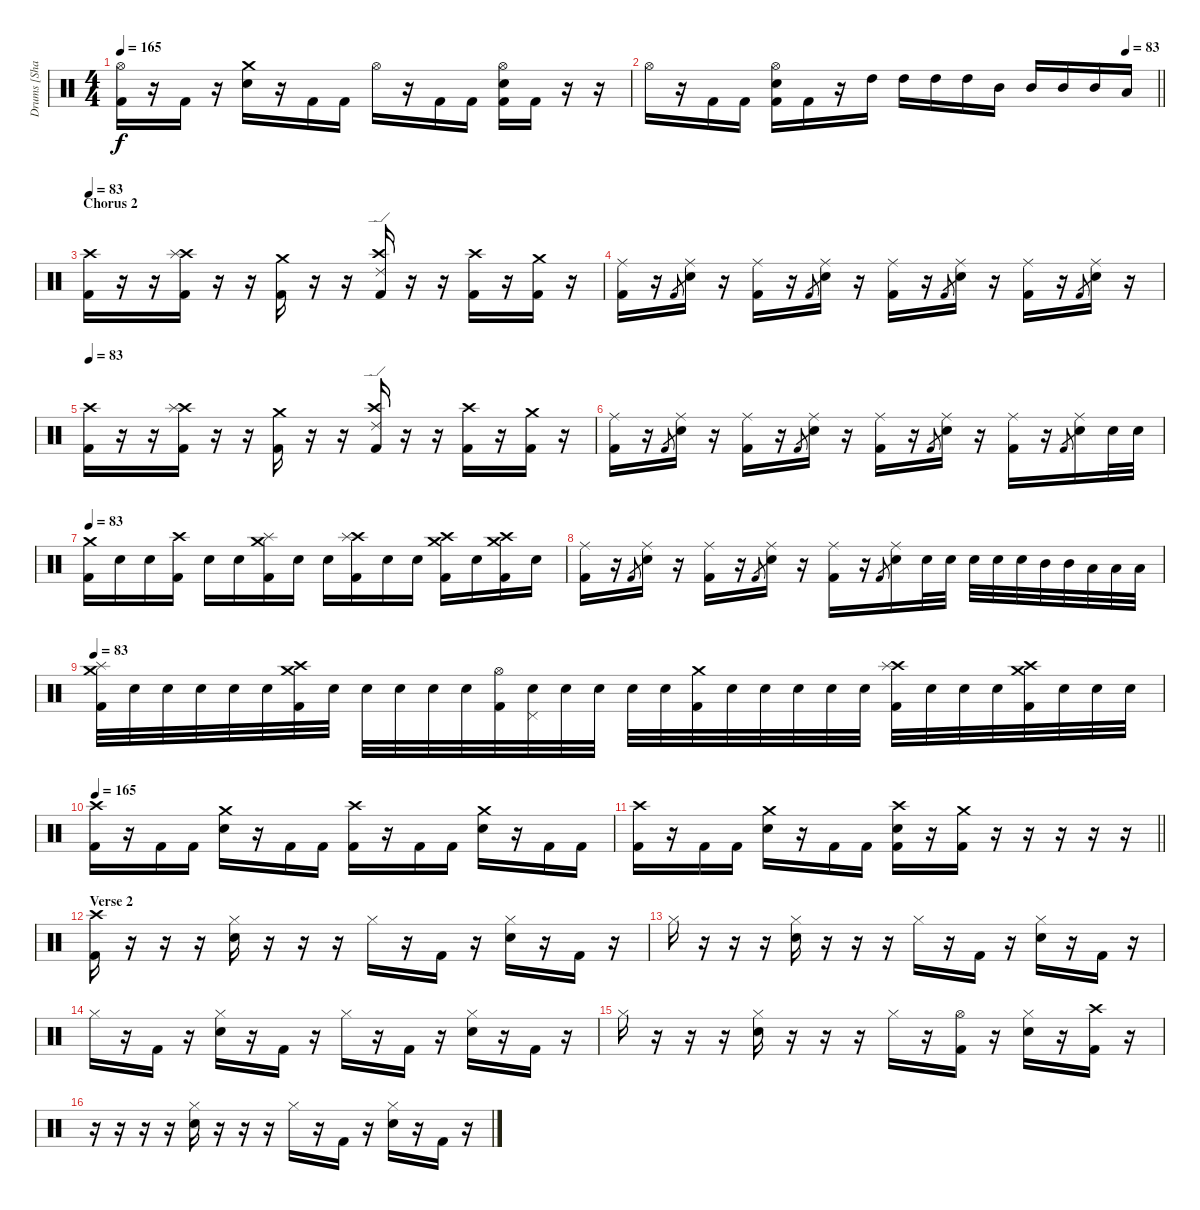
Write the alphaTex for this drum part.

\track ("Drums [Shawn Drover]" "Drums [Sha") {instrument percussion}
\staff {score}
\articulation defaults
\ts (4 4)
\tempo 165
\clef neutral
\ks c
("Hi-Hat (open)" "Kick (hit) 2").16{dy f} r.16 "Kick (hit) 2".16 r.16 ("Crash medium (hit)" "Electric Snare (hit)").16 r.16 "Kick (hit) 2".16 "Kick (hit) 2".16 "Hi-Hat (open)".16 r.16 "Kick (hit) 2".16 "Kick (hit) 2".16 ("Hi-Hat (open)" "Electric Snare (hit)" "Kick (hit) 2").16 "Kick (hit) 2".16 r.16 r.16 |
\tempo (83 0.9375)
\barLineRight lightlight "Hi-Hat (open)".16
r.16 "Kick (hit) 2".16 "Kick (hit) 2".16 ("Hi-Hat (open)" "Electric Snare (hit)" "Kick (hit) 2").16 "Kick (hit) 2".16 r.16 "High Tom (hit)".16 "High Tom (hit)".16 "High Tom (hit)".16 "High Tom (hit)".16 "Mid Tom (hit)".16 "Mid Tom (hit)".16 "Mid Tom (hit)".16 "Mid Tom (hit)".16 "Low Tom (hit)".16 |
\section ("" "Chorus 2")
\tempo 83
("Crash high (hit)" "Kick (hit) 2").16 r.16 r.16 ("Crash high (hit)" "Splash (hit)" "Kick (hit) 2").16 r.16 r.16 ("Crash medium (hit)" "Kick (hit) 2").16 r.16 r.16 ("Crash high (hit)" "Ride (edge) 2" "Kick (hit) 2").16 r.16 r.16 ("Crash high (hit)" "Kick (hit) 2").16 r.16 ("Crash medium (hit)" "Kick (hit) 2").16 r.16 |
("Ride (middle)" "Kick (hit) 2").16 r.16 "Kick (hit) 2".8{gr} ("Ride (middle)" "Electric Snare (hit)").16 r.16 ("Ride (middle)" "Kick (hit) 2").16 r.16 "Kick (hit) 2".8{gr} ("Ride (middle)" "Electric Snare (hit)").16 r.16 ("Ride (middle)" "Kick (hit) 2").16 r.16 "Kick (hit) 2".8{gr} ("Ride (middle)" "Electric Snare (hit)").16 r.16 ("Ride (middle)" "Kick (hit) 2").16 r.16 "Kick (hit) 2".8{gr} ("Ride (middle)" "Electric Snare (hit)").16 r.16 |
\tempo 83
("Crash high (hit)" "Kick (hit) 2").16 r.16 r.16 ("Crash high (hit)" "Splash (hit)" "Kick (hit) 2").16 r.16 r.16 ("Crash medium (hit)" "Kick (hit) 2").16 r.16 r.16 ("Crash high (hit)" "Ride (edge) 2" "Kick (hit) 2").16 r.16 r.16 ("Crash high (hit)" "Kick (hit) 2").16 r.16 ("Crash medium (hit)" "Kick (hit) 2").16 r.16 |
("Ride (middle)" "Kick (hit) 2").16 r.16 "Kick (hit) 2".8{gr} ("Ride (middle)" "Electric Snare (hit)").16 r.16 ("Ride (middle)" "Kick (hit) 2").16 r.16 "Kick (hit) 2".8{gr} ("Ride (middle)" "Electric Snare (hit)").16 r.16 ("Ride (middle)" "Kick (hit) 2").16 r.16 "Kick (hit) 2".8{gr} ("Ride (middle)" "Electric Snare (hit)").16 r.16 ("Ride (middle)" "Kick (hit) 2").16 r.16 "Kick (hit) 2".8{gr} ("Ride (middle)" "Electric Snare (hit)").16 "Electric Snare (hit)".32 "Electric Snare (hit)".32 |
\tempo 83
("Crash medium (hit)" "Kick (hit) 2").16 "Electric Snare (hit)".16 "Electric Snare (hit)".16 ("Crash high (hit)" "Kick (hit) 2").16 "Electric Snare (hit)".16 "Electric Snare (hit)".16 ("Crash medium (hit)" "Splash (hit)" "Kick (hit) 2").16 "Electric Snare (hit)".16 "Electric Snare (hit)".16 ("Crash high (hit)" "Splash (hit)" "Kick (hit) 2").16 "Electric Snare (hit)".16 "Electric Snare (hit)".16 ("Crash high (hit)" "Crash medium (hit)" "Kick (hit) 2").16 "Electric Snare (hit)".16 ("Crash medium (hit)" "Crash high (hit)" "Kick (hit) 2").16 "Electric Snare (hit)".16 |
("Ride (middle)" "Kick (hit) 2").16 r.16 "Kick (hit) 2".8{gr} ("Ride (middle)" "Electric Snare (hit)").16 r.16 ("Ride (middle)" "Kick (hit) 2").16 r.16 "Kick (hit) 2".8{gr} ("Ride (middle)" "Electric Snare (hit)").16 r.16 ("Ride (middle)" "Kick (hit) 2").16 r.16 "Kick (hit) 2".8{gr} ("Ride (middle)" "Electric Snare (hit)").16 "Electric Snare (hit)".32 "Electric Snare (hit)".32 "Electric Snare (hit)".32 "Electric Snare (hit)".32 "Electric Snare (hit)".32 "Mid Tom (hit)".32 "Mid Tom (hit)".32 "Low Tom (hit)".32 "Low Tom (hit)".32 "Low Tom (hit)".32 |
\tempo 83
("Crash medium (hit)" "Splash (hit)" "Kick (hit) 2").32 "Electric Snare (hit)".32 "Electric Snare (hit)".32 "Electric Snare (hit)".32 "Electric Snare (hit)".32 "Electric Snare (hit)".32 ("Crash high (hit)" "Crash medium (hit)" "Kick (hit) 2").32 "Electric Snare (hit)".32 "Electric Snare (hit)".32 "Electric Snare (hit)".32 "Electric Snare (hit)".32 "Electric Snare (hit)".32 ("Hi-Hat (open)" "Kick (hit) 2").32 ("Pedal Hi-Hat (hit)" "Electric Snare (hit)").32 "Electric Snare (hit)".32 "Electric Snare (hit)".32 "Electric Snare (hit)".32 "Electric Snare (hit)".32 ("Crash medium (hit)" "Kick (hit) 2").32 "Electric Snare (hit)".32 "Electric Snare (hit)".32 "Electric Snare (hit)".32 "Electric Snare (hit)".32 "Electric Snare (hit)".32 ("Crash high (hit)" "Splash (hit)" "Kick (hit) 2").32 "Electric Snare (hit)".32 "Electric Snare (hit)".32 "Electric Snare (hit)".32 ("Crash medium (hit)" "Crash high (hit)" "Kick (hit) 2").32 "Electric Snare (hit)".32 "Electric Snare (hit)".32 "Electric Snare (hit)".32 |
\tempo 165
("Crash high (hit)" "Kick (hit) 2").16 r.16 "Kick (hit) 2".16 "Kick (hit) 2".16 ("Crash medium (hit)" "Electric Snare (hit)").16 r.16 "Kick (hit) 2".16 "Kick (hit) 2".16 ("Crash high (hit)" "Kick (hit) 2").16 r.16 "Kick (hit) 2".16 "Kick (hit) 2".16 ("Crash medium (hit)" "Electric Snare (hit)").16 r.16 "Kick (hit) 2".16 "Kick (hit) 2".16 |
\barLineRight lightlight
("Crash high (hit)" "Kick (hit) 2").16 r.16 "Kick (hit) 2".16 "Kick (hit) 2".16 ("Crash medium (hit)" "Electric Snare (hit)").16 r.16 "Kick (hit) 2".16 "Kick (hit) 2".16 ("Crash high (hit)" "Electric Snare (hit)" "Kick (hit) 2").16 r.16 ("Crash medium (hit)" "Kick (hit) 2").16 r.16 r.16 r.16 r.16 r.16 |
\section ("" "Verse 2")
("Crash high (hit)" "Kick (hit) 2").16 r.16 r.16 r.16 ("Hi-Hat (closed)" "Electric Snare (hit)").16 r.16 r.16 r.16 "Hi-Hat (closed)".16 r.16 "Kick (hit) 2".16 r.16 ("Hi-Hat (closed)" "Electric Snare (hit)").16 r.16 "Kick (hit) 2".16 r.16 |
"Hi-Hat (closed)".16 r.16 r.16 r.16 ("Hi-Hat (closed)" "Electric Snare (hit)").16 r.16 r.16 r.16 "Hi-Hat (closed)".16 r.16 "Kick (hit) 2".16 r.16 ("Hi-Hat (closed)" "Electric Snare (hit)").16 r.16 "Kick (hit) 2".16 r.16 |
"Hi-Hat (closed)".16 r.16 "Kick (hit) 2".16 r.16 ("Hi-Hat (closed)" "Electric Snare (hit)").16 r.16 "Kick (hit) 2".16 r.16 "Hi-Hat (closed)".16 r.16 "Kick (hit) 2".16 r.16 ("Hi-Hat (closed)" "Electric Snare (hit)").16 r.16 "Kick (hit) 2".16 r.16 |
"Hi-Hat (closed)".16 r.16 r.16 r.16 ("Hi-Hat (closed)" "Electric Snare (hit)").16 r.16 r.16 r.16 "Hi-Hat (closed)".16 r.16 ("Hi-Hat (open)" "Kick (hit) 2").16 r.16 ("Hi-Hat (closed)" "Electric Snare (hit)").16 r.16 ("Crash high (hit)" "Kick (hit) 2").16 r.16 |
r.16 r.16 r.16 r.16 ("Hi-Hat (closed)" "Electric Snare (hit)").16 r.16 r.16 r.16 "Hi-Hat (closed)".16 r.16 "Kick (hit) 2".16 r.16 ("Hi-Hat (closed)" "Electric Snare (hit)").16 r.16 "Kick (hit) 2".16 r.16
